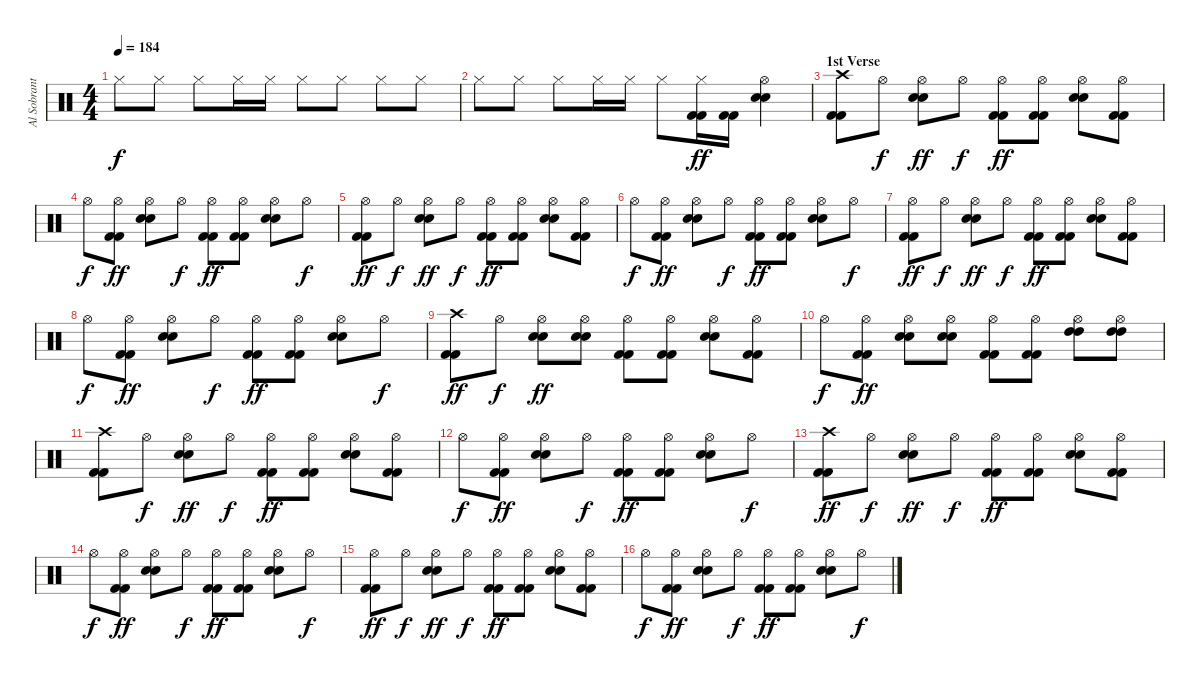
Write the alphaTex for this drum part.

\track ("Al Sobrante (Drums)" "Al Sobrant") {instrument percussion}
\staff {score}
\articulation defaults
\ts (4 4)
\tempo 184
\clef neutral
\ks c "Hi-Hat (closed)".8{dy f} "Hi-Hat (closed)".8 "Hi-Hat (closed)".8 "Hi-Hat (closed)".16 "Hi-Hat (closed)".16 "Hi-Hat (closed)".8 "Hi-Hat (closed)".8 "Hi-Hat (closed)".8 "Hi-Hat (closed)".8
|
"Hi-Hat (closed)".8 "Hi-Hat (closed)".8 "Hi-Hat (closed)".8 "Hi-Hat (closed)".16 "Hi-Hat (closed)".16 "Hi-Hat (closed)".8 ("Kick (hit) 2" "Kick (hit) 2" "Hi-Hat (closed)").16{dy ff} ("Kick (hit) 2" "Kick (hit) 2").16 ("Electric Snare (hit)" "Electric Snare (hit)" "Hi-Hat (open)").4 |
\section ("" "1st Verse")
("Kick (hit) 2" "Kick (hit) 2" "Crash high (hit)").8 "Hi-Hat (open)".8{dy f} ("Electric Snare (hit)" "Electric Snare (hit)" "Hi-Hat (open)").8{dy ff} "Hi-Hat (open)".8{dy f} ("Kick (hit) 2" "Kick (hit) 2" "Hi-Hat (open)").8{dy ff} ("Kick (hit) 2" "Kick (hit) 2" "Hi-Hat (open)").8 ("Electric Snare (hit)" "Electric Snare (hit)" "Hi-Hat (open)").8 ("Kick (hit) 2" "Kick (hit) 2" "Hi-Hat (open)").8 |
"Hi-Hat (open)".8{dy f} ("Kick (hit) 2" "Kick (hit) 2" "Hi-Hat (open)").8{dy ff} ("Electric Snare (hit)" "Electric Snare (hit)" "Hi-Hat (open)").8 "Hi-Hat (open)".8{dy f} ("Kick (hit) 2" "Kick (hit) 2" "Hi-Hat (open)").8{dy ff} ("Kick (hit) 2" "Kick (hit) 2" "Hi-Hat (open)").8 ("Electric Snare (hit)" "Electric Snare (hit)" "Hi-Hat (open)").8 "Hi-Hat (open)".8{dy f} |
("Kick (hit) 2" "Kick (hit) 2" "Hi-Hat (open)").8{dy ff} "Hi-Hat (open)".8{dy f} ("Electric Snare (hit)" "Electric Snare (hit)" "Hi-Hat (open)").8{dy ff} "Hi-Hat (open)".8{dy f} ("Kick (hit) 2" "Kick (hit) 2" "Hi-Hat (open)").8{dy ff} ("Kick (hit) 2" "Kick (hit) 2" "Hi-Hat (open)").8 ("Electric Snare (hit)" "Electric Snare (hit)" "Hi-Hat (open)").8 ("Kick (hit) 2" "Kick (hit) 2" "Hi-Hat (open)").8 |
"Hi-Hat (open)".8{dy f} ("Kick (hit) 2" "Kick (hit) 2" "Hi-Hat (open)").8{dy ff} ("Electric Snare (hit)" "Electric Snare (hit)" "Hi-Hat (open)").8 "Hi-Hat (open)".8{dy f} ("Kick (hit) 2" "Kick (hit) 2" "Hi-Hat (open)").8{dy ff} ("Kick (hit) 2" "Kick (hit) 2" "Hi-Hat (open)").8 ("Electric Snare (hit)" "Electric Snare (hit)" "Hi-Hat (open)").8 "Hi-Hat (open)".8{dy f} |
("Kick (hit) 2" "Kick (hit) 2" "Hi-Hat (open)").8{dy ff} "Hi-Hat (open)".8{dy f} ("Electric Snare (hit)" "Electric Snare (hit)" "Hi-Hat (open)").8{dy ff} "Hi-Hat (open)".8{dy f} ("Kick (hit) 2" "Kick (hit) 2" "Hi-Hat (open)").8{dy ff} ("Kick (hit) 2" "Kick (hit) 2" "Hi-Hat (open)").8 ("Electric Snare (hit)" "Electric Snare (hit)" "Hi-Hat (open)").8 ("Kick (hit) 2" "Kick (hit) 2" "Hi-Hat (open)").8 |
"Hi-Hat (open)".8{dy f} ("Kick (hit) 2" "Kick (hit) 2" "Hi-Hat (open)").8{dy ff} ("Electric Snare (hit)" "Electric Snare (hit)" "Hi-Hat (open)").8 "Hi-Hat (open)".8{dy f} ("Kick (hit) 2" "Kick (hit) 2" "Hi-Hat (open)").8{dy ff} ("Kick (hit) 2" "Kick (hit) 2" "Hi-Hat (open)").8 ("Electric Snare (hit)" "Electric Snare (hit)" "Hi-Hat (open)").8 "Hi-Hat (open)".8{dy f} |
("Kick (hit) 2" "Kick (hit) 2" "Crash high (hit)").8{dy ff} "Hi-Hat (open)".8{dy f} ("Electric Snare (hit)" "Electric Snare (hit)" "Hi-Hat (open)").8{dy ff} ("Electric Snare (hit)" "Electric Snare (hit)" "Hi-Hat (open)").8 ("Kick (hit) 2" "Kick (hit) 2" "Hi-Hat (open)").8 ("Kick (hit) 2" "Kick (hit) 2" "Hi-Hat (open)").8 ("Electric Snare (hit)" "Electric Snare (hit)" "Hi-Hat (open)").8 ("Kick (hit) 2" "Kick (hit) 2" "Hi-Hat (open)").8 |
"Hi-Hat (open)".8{dy f} ("Kick (hit) 2" "Kick (hit) 2" "Hi-Hat (open)").8{dy ff} ("Electric Snare (hit)" "Electric Snare (hit)" "Hi-Hat (open)").8 ("Electric Snare (hit)" "Electric Snare (hit)" "Hi-Hat (open)").8 ("Kick (hit) 2" "Kick (hit) 2" "Hi-Hat (open)").8 ("Kick (hit) 2" "Kick (hit) 2" "Hi-Hat (open)").8 ("High Tom (hit)" "High Tom (hit)" "Hi-Hat (open)").8 ("High Tom (hit)" "High Tom (hit)" "Hi-Hat (open)").8 |
("Kick (hit) 2" "Kick (hit) 2" "Crash high (hit)").8 "Hi-Hat (open)".8{dy f} ("Electric Snare (hit)" "Electric Snare (hit)" "Hi-Hat (open)").8{dy ff} "Hi-Hat (open)".8{dy f} ("Kick (hit) 2" "Kick (hit) 2" "Hi-Hat (open)").8{dy ff} ("Kick (hit) 2" "Kick (hit) 2" "Hi-Hat (open)").8 ("Electric Snare (hit)" "Electric Snare (hit)" "Hi-Hat (open)").8 ("Kick (hit) 2" "Kick (hit) 2" "Hi-Hat (open)").8 |
"Hi-Hat (open)".8{dy f} ("Kick (hit) 2" "Kick (hit) 2" "Hi-Hat (open)").8{dy ff} ("Electric Snare (hit)" "Electric Snare (hit)" "Hi-Hat (open)").8 "Hi-Hat (open)".8{dy f} ("Kick (hit) 2" "Kick (hit) 2" "Hi-Hat (open)").8{dy ff} ("Kick (hit) 2" "Kick (hit) 2" "Hi-Hat (open)").8 ("Electric Snare (hit)" "Electric Snare (hit)" "Hi-Hat (open)").8 "Hi-Hat (open)".8{dy f} |
("Kick (hit) 2" "Kick (hit) 2" "Crash high (hit)").8{dy ff} "Hi-Hat (open)".8{dy f} ("Electric Snare (hit)" "Electric Snare (hit)" "Hi-Hat (open)").8{dy ff} "Hi-Hat (open)".8{dy f} ("Kick (hit) 2" "Kick (hit) 2" "Hi-Hat (open)").8{dy ff} ("Kick (hit) 2" "Kick (hit) 2" "Hi-Hat (open)").8 ("Electric Snare (hit)" "Electric Snare (hit)" "Hi-Hat (open)").8 ("Kick (hit) 2" "Kick (hit) 2" "Hi-Hat (open)").8 |
"Hi-Hat (open)".8{dy f} ("Kick (hit) 2" "Kick (hit) 2" "Hi-Hat (open)").8{dy ff} ("Electric Snare (hit)" "Electric Snare (hit)" "Hi-Hat (open)").8 "Hi-Hat (open)".8{dy f} ("Kick (hit) 2" "Kick (hit) 2" "Hi-Hat (open)").8{dy ff} ("Kick (hit) 2" "Kick (hit) 2" "Hi-Hat (open)").8 ("Electric Snare (hit)" "Electric Snare (hit)" "Hi-Hat (open)").8 "Hi-Hat (open)".8{dy f} |
("Kick (hit) 2" "Kick (hit) 2" "Hi-Hat (open)").8{dy ff} "Hi-Hat (open)".8{dy f} ("Electric Snare (hit)" "Electric Snare (hit)" "Hi-Hat (open)").8{dy ff} "Hi-Hat (open)".8{dy f} ("Kick (hit) 2" "Kick (hit) 2" "Hi-Hat (open)").8{dy ff} ("Kick (hit) 2" "Kick (hit) 2" "Hi-Hat (open)").8 ("Electric Snare (hit)" "Electric Snare (hit)" "Hi-Hat (open)").8 ("Kick (hit) 2" "Kick (hit) 2" "Hi-Hat (open)").8 |
"Hi-Hat (open)".8{dy f} ("Kick (hit) 2" "Kick (hit) 2" "Hi-Hat (open)").8{dy ff} ("Electric Snare (hit)" "Electric Snare (hit)" "Hi-Hat (open)").8 "Hi-Hat (open)".8{dy f} ("Kick (hit) 2" "Kick (hit) 2" "Hi-Hat (open)").8{dy ff} ("Kick (hit) 2" "Kick (hit) 2" "Hi-Hat (open)").8 ("Electric Snare (hit)" "Electric Snare (hit)" "Hi-Hat (open)").8 "Hi-Hat (open)".8{dy f}
